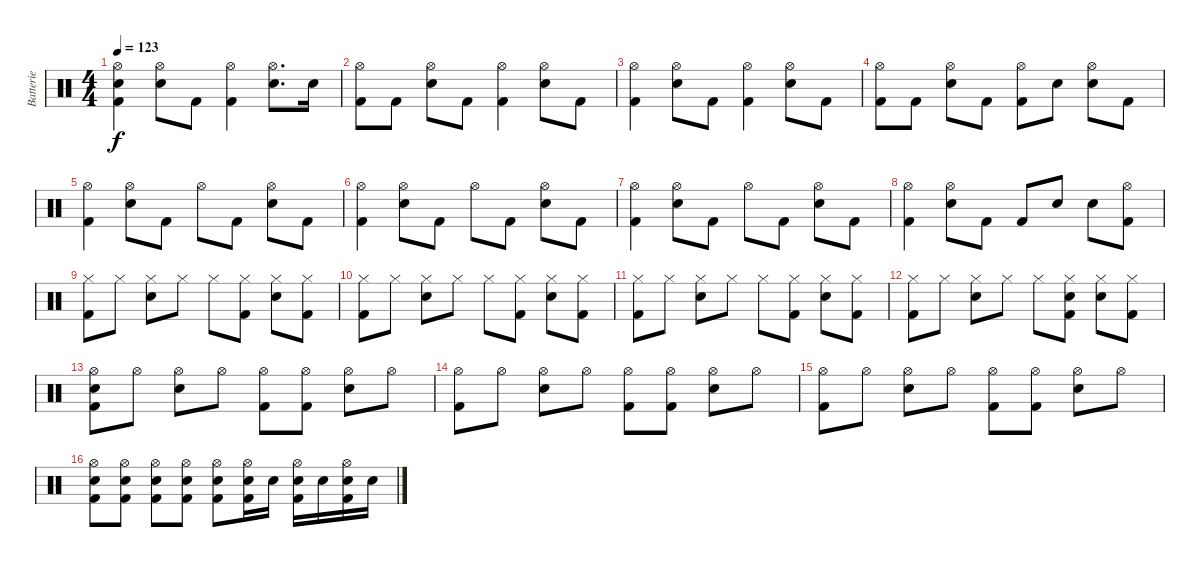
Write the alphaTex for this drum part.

\track ("Batterie" "Batterie") {instrument percussion}
\staff {score}
\articulation defaults
\ts (4 4)
\tempo 123
\clef neutral
\ks c
("Hi-Hat (open)" "Snare (hit) 2" "Kick (hit) 2").4{dy f} ("Hi-Hat (open)" "Snare (hit) 2").8 "Kick (hit) 2".8 ("Hi-Hat (open)" "Kick (hit) 2").4 ("Hi-Hat (open)" "Snare (hit) 2").8{d} "Snare (hit) 2".16 |
("Hi-Hat (open)" "Kick (hit) 2").8 "Kick (hit) 2".8 ("Hi-Hat (open)" "Snare (hit) 2").8 "Kick (hit) 2".8 ("Hi-Hat (open)" "Kick (hit) 2").4 ("Hi-Hat (open)" "Snare (hit) 2").8 "Kick (hit) 2".8 |
("Hi-Hat (open)" "Kick (hit) 2").4 ("Hi-Hat (open)" "Snare (hit) 2").8 "Kick (hit) 2".8 ("Hi-Hat (open)" "Kick (hit) 2").4 ("Hi-Hat (open)" "Snare (hit) 2").8 "Kick (hit) 2".8 |
("Hi-Hat (open)" "Kick (hit) 2").8 "Kick (hit) 2".8 ("Hi-Hat (open)" "Snare (hit) 2").8 "Kick (hit) 2".8 ("Hi-Hat (open)" "Kick (hit) 2").8 "Snare (hit) 2".8 ("Hi-Hat (open)" "Snare (hit) 2").8 "Kick (hit) 2".8 |
("Hi-Hat (open)" "Kick (hit) 2").4 ("Hi-Hat (open)" "Snare (hit) 2").8 "Kick (hit) 2".8 "Hi-Hat (open)".8 "Kick (hit) 2".8 ("Hi-Hat (open)" "Snare (hit) 2").8 "Kick (hit) 2".8 |
("Hi-Hat (open)" "Kick (hit) 2").4 ("Hi-Hat (open)" "Snare (hit) 2").8 "Kick (hit) 2".8 "Hi-Hat (open)".8 "Kick (hit) 2".8 ("Hi-Hat (open)" "Snare (hit) 2").8 "Kick (hit) 2".8 |
("Hi-Hat (open)" "Kick (hit) 2").4 ("Hi-Hat (open)" "Snare (hit) 2").8 "Kick (hit) 2".8 "Hi-Hat (open)".8 "Kick (hit) 2".8 ("Hi-Hat (open)" "Snare (hit) 2").8 "Kick (hit) 2".8 |
("Hi-Hat (open)" "Kick (hit) 2").4 ("Hi-Hat (open)" "Snare (hit) 2").8 "Kick (hit) 2".8 "Kick (hit) 2".8 "Snare (hit) 2".8 "Snare (hit) 2".8 ("Hi-Hat (open)" "Kick (hit) 2").8 |
("Hi-Hat (closed)" "Kick (hit) 2").8 "Hi-Hat (closed)".8 ("Hi-Hat (closed)" "Snare (hit) 2").8 "Hi-Hat (closed)".8 "Hi-Hat (closed)".8 ("Hi-Hat (closed)" "Kick (hit) 2").8 ("Hi-Hat (closed)" "Snare (hit) 2").8 ("Hi-Hat (closed)" "Kick (hit) 2").8 |
("Hi-Hat (closed)" "Kick (hit) 2").8 "Hi-Hat (closed)".8 ("Hi-Hat (closed)" "Snare (hit) 2").8 "Hi-Hat (closed)".8 "Hi-Hat (closed)".8 ("Hi-Hat (closed)" "Kick (hit) 2").8 ("Hi-Hat (closed)" "Snare (hit) 2").8 ("Hi-Hat (closed)" "Kick (hit) 2").8 |
("Hi-Hat (closed)" "Kick (hit) 2").8 "Hi-Hat (closed)".8 ("Hi-Hat (closed)" "Snare (hit) 2").8 "Hi-Hat (closed)".8 "Hi-Hat (closed)".8 ("Hi-Hat (closed)" "Kick (hit) 2").8 ("Hi-Hat (closed)" "Snare (hit) 2").8 ("Hi-Hat (closed)" "Kick (hit) 2").8 |
("Hi-Hat (closed)" "Kick (hit) 2").8 "Hi-Hat (closed)".8 ("Hi-Hat (closed)" "Snare (hit) 2").8 "Hi-Hat (closed)".8 "Hi-Hat (closed)".8 ("Hi-Hat (closed)" "Snare (hit) 2" "Kick (hit) 2").8 ("Hi-Hat (closed)" "Snare (hit) 2").8 ("Hi-Hat (closed)" "Kick (hit) 2").8 |
("Hi-Hat (open)" "Snare (hit) 2" "Kick (hit) 2").8 "Hi-Hat (open)".8 ("Hi-Hat (open)" "Snare (hit) 2").8 "Hi-Hat (open)".8 ("Hi-Hat (open)" "Kick (hit) 2").8 ("Hi-Hat (open)" "Kick (hit) 2").8 ("Hi-Hat (open)" "Snare (hit) 2").8 "Hi-Hat (open)".8 |
("Hi-Hat (open)" "Kick (hit) 2").8 "Hi-Hat (open)".8 ("Hi-Hat (open)" "Snare (hit) 2").8 "Hi-Hat (open)".8 ("Hi-Hat (open)" "Kick (hit) 2").8 ("Hi-Hat (open)" "Kick (hit) 2").8 ("Hi-Hat (open)" "Snare (hit) 2").8 "Hi-Hat (open)".8 |
("Hi-Hat (open)" "Kick (hit) 2").8 "Hi-Hat (open)".8 ("Hi-Hat (open)" "Snare (hit) 2").8 "Hi-Hat (open)".8 ("Hi-Hat (open)" "Kick (hit) 2").8 ("Hi-Hat (open)" "Kick (hit) 2").8 ("Hi-Hat (open)" "Snare (hit) 2").8 "Hi-Hat (open)".8{volume 6} |
("Hi-Hat (open)" "Snare (hit) 2" "Kick (hit) 2").8{volume 16} ("Hi-Hat (open)" "Snare (hit) 2" "Kick (hit) 2").8 ("Hi-Hat (open)" "Snare (hit) 2" "Kick (hit) 2").8 ("Hi-Hat (open)" "Snare (hit) 2" "Kick (hit) 2").8 ("Hi-Hat (open)" "Snare (hit) 2" "Kick (hit) 2").8 ("Hi-Hat (open)" "Snare (hit) 2" "Kick (hit) 2").16 "Snare (hit) 2".16 ("Hi-Hat (open)" "Snare (hit) 2" "Kick (hit) 2").16 "Snare (hit) 2".16 ("Hi-Hat (open)" "Snare (hit) 2" "Kick (hit) 2").16 "Snare (hit) 2".16
